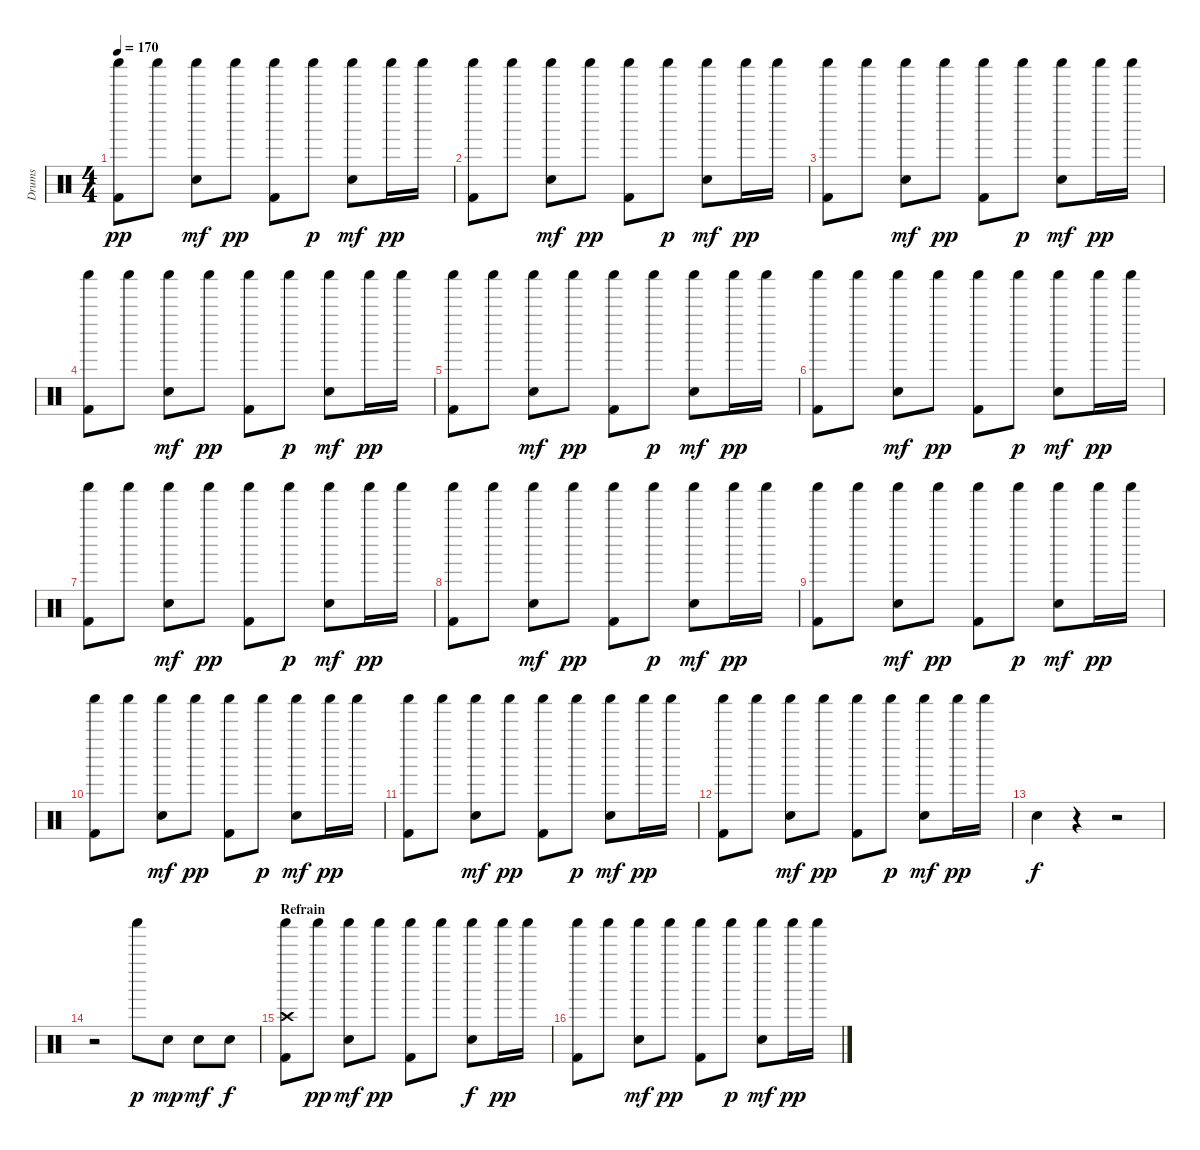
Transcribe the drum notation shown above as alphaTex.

\track ("Drums" "Drums") {instrument percussion}
\staff {score}
\articulation defaults
\ts (4 4)
\tempo 170
\clef neutral
\ks c
("Kick (hit) 2" "Shaker (hit)").8{dy pp} "Shaker (hit)".8 ("Snare (hit) 2" "Shaker (hit)").8{dy mf} "Shaker (hit)".8{dy pp} ("Kick (hit) 2" "Shaker (hit)").8 "Shaker (hit)".8{dy p} ("Snare (hit) 2" "Shaker (hit)").8{dy mf} "Shaker (hit)".16{dy pp} "Shaker (hit)".16 |
("Kick (hit) 2" "Shaker (hit)").8 "Shaker (hit)".8 ("Snare (hit) 2" "Shaker (hit)").8{dy mf} "Shaker (hit)".8{dy pp} ("Kick (hit) 2" "Shaker (hit)").8 "Shaker (hit)".8{dy p} ("Snare (hit) 2" "Shaker (hit)").8{dy mf} "Shaker (hit)".16{dy pp} "Shaker (hit)".16 |
("Kick (hit) 2" "Shaker (hit)").8 "Shaker (hit)".8 ("Snare (hit) 2" "Shaker (hit)").8{dy mf} "Shaker (hit)".8{dy pp} ("Kick (hit) 2" "Shaker (hit)").8 "Shaker (hit)".8{dy p} ("Snare (hit) 2" "Shaker (hit)").8{dy mf} "Shaker (hit)".16{dy pp} "Shaker (hit)".16 |
("Kick (hit) 2" "Shaker (hit)").8 "Shaker (hit)".8 ("Snare (hit) 2" "Shaker (hit)").8{dy mf} "Shaker (hit)".8{dy pp} ("Kick (hit) 2" "Shaker (hit)").8 "Shaker (hit)".8{dy p} ("Snare (hit) 2" "Shaker (hit)").8{dy mf} "Shaker (hit)".16{dy pp} "Shaker (hit)".16 |
("Kick (hit) 2" "Shaker (hit)").8 "Shaker (hit)".8 ("Snare (hit) 2" "Shaker (hit)").8{dy mf} "Shaker (hit)".8{dy pp} ("Kick (hit) 2" "Shaker (hit)").8 "Shaker (hit)".8{dy p} ("Snare (hit) 2" "Shaker (hit)").8{dy mf} "Shaker (hit)".16{dy pp} "Shaker (hit)".16 |
("Kick (hit) 2" "Shaker (hit)").8 "Shaker (hit)".8 ("Snare (hit) 2" "Shaker (hit)").8{dy mf} "Shaker (hit)".8{dy pp} ("Kick (hit) 2" "Shaker (hit)").8 "Shaker (hit)".8{dy p} ("Snare (hit) 2" "Shaker (hit)").8{dy mf} "Shaker (hit)".16{dy pp} "Shaker (hit)".16 |
("Kick (hit) 2" "Shaker (hit)").8 "Shaker (hit)".8 ("Snare (hit) 2" "Shaker (hit)").8{dy mf} "Shaker (hit)".8{dy pp} ("Kick (hit) 2" "Shaker (hit)").8 "Shaker (hit)".8{dy p} ("Snare (hit) 2" "Shaker (hit)").8{dy mf} "Shaker (hit)".16{dy pp} "Shaker (hit)".16 |
("Kick (hit) 2" "Shaker (hit)").8 "Shaker (hit)".8 ("Snare (hit) 2" "Shaker (hit)").8{dy mf} "Shaker (hit)".8{dy pp} ("Kick (hit) 2" "Shaker (hit)").8 "Shaker (hit)".8{dy p} ("Snare (hit) 2" "Shaker (hit)").8{dy mf} "Shaker (hit)".16{dy pp} "Shaker (hit)".16 |
("Kick (hit) 2" "Shaker (hit)").8 "Shaker (hit)".8 ("Snare (hit) 2" "Shaker (hit)").8{dy mf} "Shaker (hit)".8{dy pp} ("Kick (hit) 2" "Shaker (hit)").8 "Shaker (hit)".8{dy p} ("Snare (hit) 2" "Shaker (hit)").8{dy mf} "Shaker (hit)".16{dy pp} "Shaker (hit)".16 |
("Kick (hit) 2" "Shaker (hit)").8 "Shaker (hit)".8 ("Snare (hit) 2" "Shaker (hit)").8{dy mf} "Shaker (hit)".8{dy pp} ("Kick (hit) 2" "Shaker (hit)").8 "Shaker (hit)".8{dy p} ("Snare (hit) 2" "Shaker (hit)").8{dy mf} "Shaker (hit)".16{dy pp} "Shaker (hit)".16 |
("Kick (hit) 2" "Shaker (hit)").8 "Shaker (hit)".8 ("Snare (hit) 2" "Shaker (hit)").8{dy mf} "Shaker (hit)".8{dy pp} ("Kick (hit) 2" "Shaker (hit)").8 "Shaker (hit)".8{dy p} ("Snare (hit) 2" "Shaker (hit)").8{dy mf} "Shaker (hit)".16{dy pp} "Shaker (hit)".16 |
("Kick (hit) 2" "Shaker (hit)").8 "Shaker (hit)".8 ("Snare (hit) 2" "Shaker (hit)").8{dy mf} "Shaker (hit)".8{dy pp} ("Kick (hit) 2" "Shaker (hit)").8 "Shaker (hit)".8{dy p} ("Snare (hit) 2" "Shaker (hit)").8{dy mf} "Shaker (hit)".16{dy pp} "Shaker (hit)".16 |
"Snare (hit) 2".4{dy f} r.4 r.2 |
r.2 "Shaker (hit)".8{dy p} "Snare (hit) 2".8{dy mp} "Snare (hit) 2".8{dy mf} "Snare (hit) 2".8{dy f} |
\section ("" "Refrain")
("Crash high (hit)" "Kick (hit) 2" "Shaker (hit)").8 "Shaker (hit)".8{dy pp} ("Snare (hit) 2" "Shaker (hit)").8{dy mf} "Shaker (hit)".8{dy pp} ("Kick (hit) 2" "Shaker (hit)").8 "Shaker (hit)".8 ("Snare (hit) 2" "Shaker (hit)").8{dy f} "Shaker (hit)".16{dy pp} "Shaker (hit)".16 |
("Kick (hit) 2" "Shaker (hit)").8 "Shaker (hit)".8 ("Snare (hit) 2" "Shaker (hit)").8{dy mf} "Shaker (hit)".8{dy pp} ("Kick (hit) 2" "Shaker (hit)").8 "Shaker (hit)".8{dy p} ("Snare (hit) 2" "Shaker (hit)").8{dy mf} "Shaker (hit)".16{dy pp} "Shaker (hit)".16
